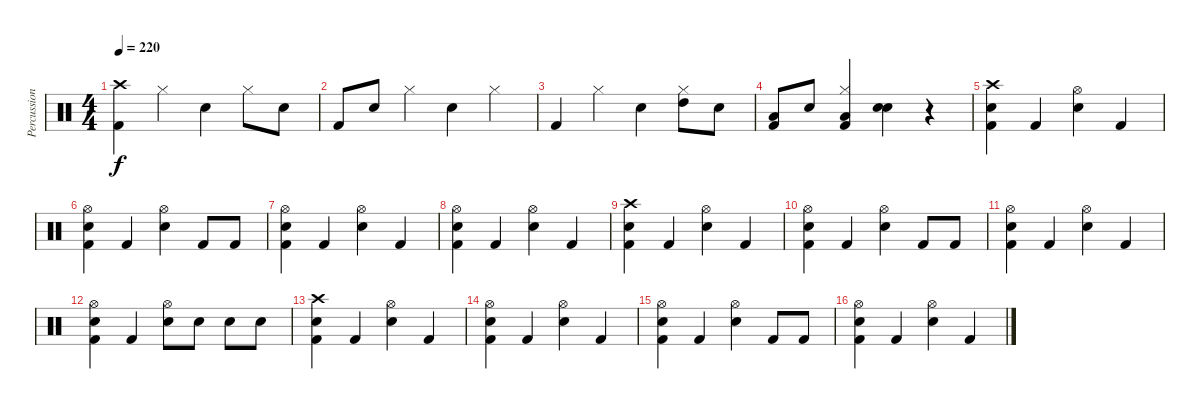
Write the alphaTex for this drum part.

\track ("Percussion" "Percussion") {instrument percussion}
\staff {score}
\articulation defaults
\ts (4 4)
\tempo 220
\clef neutral
\ks c
("Crash high (hit)" "Kick (hit) 2").4{dy f} "Hi-Hat (closed)".4 "Electric Snare (hit)".4 "Hi-Hat (closed)".8 "Electric Snare (hit)".8 |
"Kick (hit) 2".8 "Electric Snare (hit)".8 "Hi-Hat (closed)".4 "Electric Snare (hit)".4 "Hi-Hat (closed)".4 |
"Kick (hit) 2".4 "Hi-Hat (closed)".4 "Electric Snare (hit)".4 ("Hi-Hat (closed)" "High Tom (hit)").8 "Electric Snare (hit)".8 |
("Low Tom (hit)" "Kick (hit) 2").8 "Electric Snare (hit)".8 ("Hi-Hat (closed)" "Low Floor Tom (hit)" "Kick (hit) 2").4 ("Electric Snare (hit)" "Electric Snare (hit)").4 r.4 |
("Crash high (hit)" "Electric Snare (hit)" "Kick (hit) 2").4 "Kick (hit) 2".4 ("Hi-Hat (open)" "Electric Snare (hit)").4 "Kick (hit) 2".4 |
("Hi-Hat (open)" "Electric Snare (hit)" "Kick (hit) 2").4 "Kick (hit) 2".4 ("Hi-Hat (open)" "Electric Snare (hit)").4 "Kick (hit) 2".8 "Kick (hit) 2".8 |
("Hi-Hat (open)" "Electric Snare (hit)" "Kick (hit) 2").4 "Kick (hit) 2".4 ("Hi-Hat (open)" "Electric Snare (hit)").4 "Kick (hit) 2".4 |
("Hi-Hat (open)" "Electric Snare (hit)" "Kick (hit) 2").4 "Kick (hit) 2".4 ("Hi-Hat (open)" "Electric Snare (hit)").4 "Kick (hit) 2".4 |
("Crash high (hit)" "Electric Snare (hit)" "Kick (hit) 2").4 "Kick (hit) 2".4 ("Hi-Hat (open)" "Electric Snare (hit)").4 "Kick (hit) 2".4 |
("Hi-Hat (open)" "Electric Snare (hit)" "Kick (hit) 2").4 "Kick (hit) 2".4 ("Hi-Hat (open)" "Electric Snare (hit)").4 "Kick (hit) 2".8 "Kick (hit) 2".8 |
("Hi-Hat (open)" "Electric Snare (hit)" "Kick (hit) 2").4 "Kick (hit) 2".4 ("Hi-Hat (open)" "Electric Snare (hit)").4 "Kick (hit) 2".4 |
("Hi-Hat (open)" "Electric Snare (hit)" "Kick (hit) 2").4 "Kick (hit) 2".4 ("Hi-Hat (open)" "Electric Snare (hit)").8 "Electric Snare (hit)".8 "Electric Snare (hit)".8 "Electric Snare (hit)".8 |
("Crash high (hit)" "Electric Snare (hit)" "Kick (hit) 2").4 "Kick (hit) 2".4 ("Hi-Hat (open)" "Electric Snare (hit)").4 "Kick (hit) 2".4 |
("Hi-Hat (open)" "Electric Snare (hit)" "Kick (hit) 2").4 "Kick (hit) 2".4 ("Hi-Hat (open)" "Electric Snare (hit)").4 "Kick (hit) 2".4 |
("Hi-Hat (open)" "Electric Snare (hit)" "Kick (hit) 2").4 "Kick (hit) 2".4 ("Hi-Hat (open)" "Electric Snare (hit)").4 "Kick (hit) 2".8 "Kick (hit) 2".8 |
("Hi-Hat (open)" "Electric Snare (hit)" "Kick (hit) 2").4 "Kick (hit) 2".4 ("Hi-Hat (open)" "Electric Snare (hit)").4 "Kick (hit) 2".4
